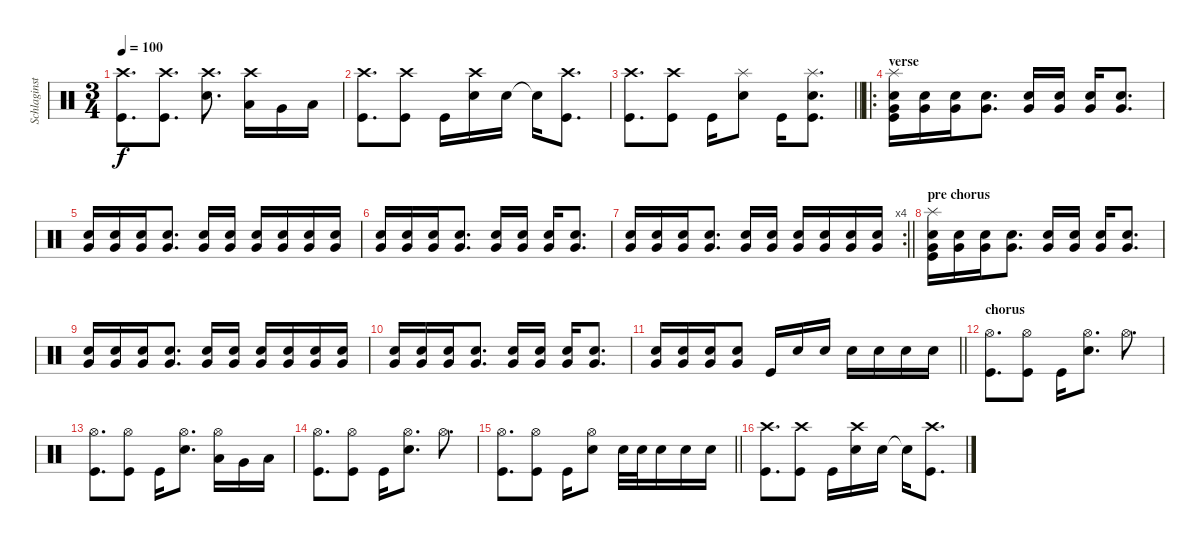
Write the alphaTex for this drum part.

\track ("Schlaginstrumente - Auswahl" "Schlaginst") {instrument percussion}
\staff {score}
\articulation defaults
\ts (3 4)
\tempo 100
\clef neutral
\ks c
("Crash high (hit)" "Kick (hit)").8{d dy f} ("Crash high (hit)" "Kick (hit)").8{d} ("Crash high (hit)" "Snare (hit) 2").8{d} ("Crash high (hit)" "Low Floor Tom (hit)").16 "Very Low Tom (hit)".16 "Low Tom (hit)".16 |
("Crash high (hit)" "Kick (hit)").8{d} ("Crash high (hit)" "Kick (hit)").8 "Kick (hit)".16 ("Crash high (hit)" "Snare (hit) 2").16 "Snare (hit) 2".16 "Snare (hit) 2"{t}.16 ("Crash high (hit)" "Kick (hit)").8{d} |
\barLineRight lightlight
("Crash high (hit)" "Kick (hit)").8{d} ("Crash high (hit)" "Kick (hit)").8 "Kick (hit)".16 ("Splash (hit)" "Snare (hit) 2").8 "Kick (hit)".16 ("Splash (hit)" "Snare (hit) 2" "Kick (hit)").8{d} |
\ro
\section ("" "verse")
("Splash (hit)" "Snare (hit) 2" "Very Low Tom (hit)" "Kick (hit)").16{volume 8} ("Snare (hit) 2" "Very Low Tom (hit)").16 ("Snare (hit) 2" "Very Low Tom (hit)").16 ("Snare (hit) 2" "Very Low Tom (hit)").8{d} ("Snare (hit) 2" "Very Low Tom (hit)").16 ("Snare (hit) 2" "Very Low Tom (hit)").16 ("Snare (hit) 2" "Very Low Tom (hit)").16 ("Snare (hit) 2" "Very Low Tom (hit)").8{d} |
("Snare (hit) 2" "Very Low Tom (hit)").16 ("Snare (hit) 2" "Very Low Tom (hit)").16 ("Snare (hit) 2" "Very Low Tom (hit)").16 ("Snare (hit) 2" "Very Low Tom (hit)").8{d} ("Snare (hit) 2" "Very Low Tom (hit)").16 ("Snare (hit) 2" "Very Low Tom (hit)").16 ("Snare (hit) 2" "Very Low Tom (hit)").16 ("Snare (hit) 2" "Very Low Tom (hit)").16 ("Snare (hit) 2" "Very Low Tom (hit)").16 ("Snare (hit) 2" "Very Low Tom (hit)").16 |
("Snare (hit) 2" "Very Low Tom (hit)").16 ("Snare (hit) 2" "Very Low Tom (hit)").16 ("Snare (hit) 2" "Very Low Tom (hit)").16 ("Snare (hit) 2" "Very Low Tom (hit)").8{d} ("Snare (hit) 2" "Very Low Tom (hit)").16 ("Snare (hit) 2" "Very Low Tom (hit)").16 ("Snare (hit) 2" "Very Low Tom (hit)").16 ("Snare (hit) 2" "Very Low Tom (hit)").8{d} |
\rc 4
\barLineRight lightlight
("Snare (hit) 2" "Very Low Tom (hit)").16 ("Snare (hit) 2" "Very Low Tom (hit)").16 ("Snare (hit) 2" "Very Low Tom (hit)").16 ("Snare (hit) 2" "Very Low Tom (hit)").8{d} ("Snare (hit) 2" "Very Low Tom (hit)").16 ("Snare (hit) 2" "Very Low Tom (hit)").16 ("Snare (hit) 2" "Very Low Tom (hit)").16 ("Snare (hit) 2" "Very Low Tom (hit)").16 ("Snare (hit) 2" "Very Low Tom (hit)").16 ("Snare (hit) 2" "Very Low Tom (hit)").16 |
\section ("" "pre chorus")
("Splash (hit)" "Snare (hit) 2" "Very Low Tom (hit)" "Kick (hit)").16 ("Snare (hit) 2" "Very Low Tom (hit)").16 ("Snare (hit) 2" "Very Low Tom (hit)").16 ("Snare (hit) 2" "Very Low Tom (hit)").8{d} ("Snare (hit) 2" "Very Low Tom (hit)").16 ("Snare (hit) 2" "Very Low Tom (hit)").16 ("Snare (hit) 2" "Very Low Tom (hit)").16 ("Snare (hit) 2" "Very Low Tom (hit)").8{d} |
("Snare (hit) 2" "Very Low Tom (hit)").16 ("Snare (hit) 2" "Very Low Tom (hit)").16 ("Snare (hit) 2" "Very Low Tom (hit)").16 ("Snare (hit) 2" "Very Low Tom (hit)").8{d} ("Snare (hit) 2" "Very Low Tom (hit)").16 ("Snare (hit) 2" "Very Low Tom (hit)").16 ("Snare (hit) 2" "Very Low Tom (hit)").16 ("Snare (hit) 2" "Very Low Tom (hit)").16 ("Snare (hit) 2" "Very Low Tom (hit)").16 ("Snare (hit) 2" "Very Low Tom (hit)").16 |
("Snare (hit) 2" "Very Low Tom (hit)").16 ("Snare (hit) 2" "Very Low Tom (hit)").16 ("Snare (hit) 2" "Very Low Tom (hit)").16 ("Snare (hit) 2" "Very Low Tom (hit)").8{d} ("Snare (hit) 2" "Very Low Tom (hit)").16 ("Snare (hit) 2" "Very Low Tom (hit)").16 ("Snare (hit) 2" "Very Low Tom (hit)").16 ("Snare (hit) 2" "Very Low Tom (hit)").8{d} |
\barLineRight lightlight
("Snare (hit) 2" "Very Low Tom (hit)").16 ("Snare (hit) 2" "Very Low Tom (hit)").16 ("Snare (hit) 2" "Very Low Tom (hit)").16 ("Snare (hit) 2" "Very Low Tom (hit)").8 "Kick (hit)".16{volume 16} "Snare (hit) 2".16 "Snare (hit) 2".16 "Snare (hit) 2".16 "Snare (hit) 2".16 "Snare (hit) 2".16 "Snare (hit) 2".16 |
\section ("" "chorus")
("Hi-Hat (open)" "Kick (hit)").8{d} ("Hi-Hat (open)" "Kick (hit)").8 "Kick (hit)".16 ("Hi-Hat (open)" "Snare (hit) 2").8{d} "Hi-Hat (open)".8{d} |
("Hi-Hat (open)" "Kick (hit)").8{d} ("Hi-Hat (open)" "Kick (hit)").8 "Kick (hit)".16 ("Hi-Hat (open)" "Snare (hit) 2").8{d} ("Hi-Hat (open)" "Low Floor Tom (hit)").16 "Very Low Tom (hit)".16 "Low Tom (hit)".16 |
("Hi-Hat (open)" "Kick (hit)").8{d} ("Hi-Hat (open)" "Kick (hit)").8 "Kick (hit)".16 ("Hi-Hat (open)" "Snare (hit) 2").8{d} "Hi-Hat (open)".8{d} |
\barLineRight lightlight
("Hi-Hat (open)" "Kick (hit)").8{d} ("Hi-Hat (open)" "Kick (hit)").8 "Kick (hit)".16 ("Hi-Hat (open)" "Snare (hit) 2").8 "Snare (hit) 2".32 "Snare (hit) 2".32 "Snare (hit) 2".16 "Snare (hit) 2".16 "Snare (hit) 2".16 |
("Crash high (hit)" "Kick (hit)").8{d} ("Crash high (hit)" "Kick (hit)").8 "Kick (hit)".16 ("Crash high (hit)" "Snare (hit) 2").16 "Snare (hit) 2".16 "Snare (hit) 2"{t}.16 ("Crash high (hit)" "Kick (hit)").8{d}
